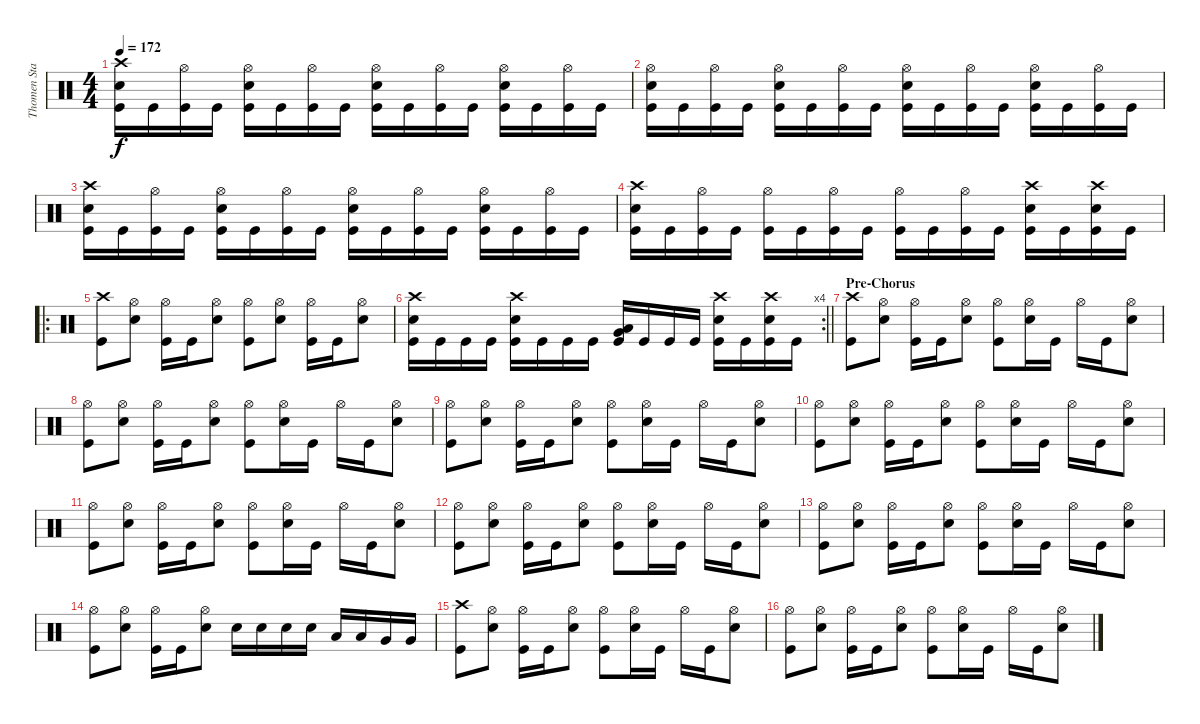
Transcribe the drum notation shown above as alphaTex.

\track ("Thomen Stauch" "Thomen Sta") {instrument percussion}
\staff {score}
\articulation defaults
\ts (4 4)
\tempo 172
\clef neutral
\ks c
("Crash high (hit)" "Snare (hit) 2" "Kick (hit)").16{dy f} "Kick (hit)".16 ("Hi-Hat (open)" "Kick (hit)").16 "Kick (hit)".16 ("Hi-Hat (open)" "Snare (hit) 2" "Kick (hit)").16 "Kick (hit)".16 ("Hi-Hat (open)" "Kick (hit)").16 "Kick (hit)".16 ("Hi-Hat (open)" "Snare (hit) 2" "Kick (hit)").16 "Kick (hit)".16 ("Hi-Hat (open)" "Kick (hit)").16 "Kick (hit)".16 ("Hi-Hat (open)" "Snare (hit) 2" "Kick (hit)").16 "Kick (hit)".16 ("Hi-Hat (open)" "Kick (hit)").16 "Kick (hit)".16 |
("Hi-Hat (open)" "Snare (hit) 2" "Kick (hit)").16 "Kick (hit)".16 ("Hi-Hat (open)" "Kick (hit)").16 "Kick (hit)".16 ("Hi-Hat (open)" "Snare (hit) 2" "Kick (hit)").16 "Kick (hit)".16 ("Hi-Hat (open)" "Kick (hit)").16 "Kick (hit)".16 ("Hi-Hat (open)" "Snare (hit) 2" "Kick (hit)").16 "Kick (hit)".16 ("Hi-Hat (open)" "Kick (hit)").16 "Kick (hit)".16 ("Hi-Hat (open)" "Snare (hit) 2" "Kick (hit)").16 "Kick (hit)".16 ("Hi-Hat (open)" "Kick (hit)").16 "Kick (hit)".16 |
("Crash high (hit)" "Snare (hit) 2" "Kick (hit)").16 "Kick (hit)".16 ("Hi-Hat (open)" "Kick (hit)").16 "Kick (hit)".16 ("Hi-Hat (open)" "Snare (hit) 2" "Kick (hit)").16 "Kick (hit)".16 ("Hi-Hat (open)" "Kick (hit)").16 "Kick (hit)".16 ("Hi-Hat (open)" "Snare (hit) 2" "Kick (hit)").16 "Kick (hit)".16 ("Hi-Hat (open)" "Kick (hit)").16 "Kick (hit)".16 ("Hi-Hat (open)" "Snare (hit) 2" "Kick (hit)").16 "Kick (hit)".16 ("Hi-Hat (open)" "Kick (hit)").16 "Kick (hit)".16 |
("Crash high (hit)" "Snare (hit) 2" "Kick (hit)").16 "Kick (hit)".16 ("Hi-Hat (open)" "Kick (hit)").16 "Kick (hit)".16 ("Hi-Hat (open)" "Kick (hit)").16 "Kick (hit)".16 ("Hi-Hat (open)" "Kick (hit)").16 "Kick (hit)".16 ("Hi-Hat (open)" "Kick (hit)").16 "Kick (hit)".16 ("Hi-Hat (open)" "Kick (hit)").16 "Kick (hit)".16 ("Crash high (hit)" "Snare (hit) 2" "Kick (hit)").16 "Kick (hit)".16 ("Crash high (hit)" "Snare (hit) 2" "Kick (hit)").16 "Kick (hit)".16 |
\ro
("Crash high (hit)" "Kick (hit)").8 ("Hi-Hat (open)" "Snare (hit) 2").8 ("Hi-Hat (open)" "Kick (hit)").16 "Kick (hit)".16 ("Hi-Hat (open)" "Snare (hit) 2").8 ("Hi-Hat (open)" "Kick (hit)").8 ("Hi-Hat (open)" "Snare (hit) 2").8 ("Hi-Hat (open)" "Kick (hit)").16 "Kick (hit)".16 ("Hi-Hat (open)" "Snare (hit) 2").8 |
\rc 4
\barLineRight lightlight
("Crash high (hit)" "Snare (hit) 2" "Kick (hit)").16 "Kick (hit)".16 "Kick (hit)".16 "Kick (hit)".16 ("Crash high (hit)" "Snare (hit) 2" "Kick (hit)").16 "Kick (hit)".16 "Kick (hit)".16 "Kick (hit)".16 ("Very Low Tom (hit)" "Low Floor Tom (hit)" "Kick (hit)").16 "Kick (hit)".16 "Kick (hit)".16 "Kick (hit)".16 ("Crash high (hit)" "Snare (hit) 2" "Kick (hit)").16 "Kick (hit)".16 ("Crash high (hit)" "Snare (hit) 2" "Kick (hit)").16 "Kick (hit)".16 |
\section ("" "Pre-Chorus")
("Crash high (hit)" "Kick (hit)").8 ("Hi-Hat (open)" "Snare (hit) 2").8 ("Hi-Hat (open)" "Kick (hit)").16 "Kick (hit)".16 ("Hi-Hat (open)" "Snare (hit) 2").8 ("Hi-Hat (open)" "Kick (hit)").8 ("Hi-Hat (open)" "Snare (hit) 2").16 "Kick (hit)".16 "Hi-Hat (open)".16 "Kick (hit)".16 ("Hi-Hat (open)" "Snare (hit) 2").8 |
("Hi-Hat (open)" "Kick (hit)").8 ("Hi-Hat (open)" "Snare (hit) 2").8 ("Hi-Hat (open)" "Kick (hit)").16 "Kick (hit)".16 ("Hi-Hat (open)" "Snare (hit) 2").8 ("Hi-Hat (open)" "Kick (hit)").8 ("Hi-Hat (open)" "Snare (hit) 2").16 "Kick (hit)".16 "Hi-Hat (open)".16 "Kick (hit)".16 ("Hi-Hat (open)" "Snare (hit) 2").8 |
("Hi-Hat (open)" "Kick (hit)").8 ("Hi-Hat (open)" "Snare (hit) 2").8 ("Hi-Hat (open)" "Kick (hit)").16 "Kick (hit)".16 ("Hi-Hat (open)" "Snare (hit) 2").8 ("Hi-Hat (open)" "Kick (hit)").8 ("Hi-Hat (open)" "Snare (hit) 2").16 "Kick (hit)".16 "Hi-Hat (open)".16 "Kick (hit)".16 ("Hi-Hat (open)" "Snare (hit) 2").8 |
("Hi-Hat (open)" "Kick (hit)").8 ("Hi-Hat (open)" "Snare (hit) 2").8 ("Hi-Hat (open)" "Kick (hit)").16 "Kick (hit)".16 ("Hi-Hat (open)" "Snare (hit) 2").8 ("Hi-Hat (open)" "Kick (hit)").8 ("Hi-Hat (open)" "Snare (hit) 2").16 "Kick (hit)".16 "Hi-Hat (open)".16 "Kick (hit)".16 ("Hi-Hat (open)" "Snare (hit) 2").8 |
("Hi-Hat (open)" "Kick (hit)").8 ("Hi-Hat (open)" "Snare (hit) 2").8 ("Hi-Hat (open)" "Kick (hit)").16 "Kick (hit)".16 ("Hi-Hat (open)" "Snare (hit) 2").8 ("Hi-Hat (open)" "Kick (hit)").8 ("Hi-Hat (open)" "Snare (hit) 2").16 "Kick (hit)".16 "Hi-Hat (open)".16 "Kick (hit)".16 ("Hi-Hat (open)" "Snare (hit) 2").8 |
("Hi-Hat (open)" "Kick (hit)").8 ("Hi-Hat (open)" "Snare (hit) 2").8 ("Hi-Hat (open)" "Kick (hit)").16 "Kick (hit)".16 ("Hi-Hat (open)" "Snare (hit) 2").8 ("Hi-Hat (open)" "Kick (hit)").8 ("Hi-Hat (open)" "Snare (hit) 2").16 "Kick (hit)".16 "Hi-Hat (open)".16 "Kick (hit)".16 ("Hi-Hat (open)" "Snare (hit) 2").8 |
("Hi-Hat (open)" "Kick (hit)").8 ("Hi-Hat (open)" "Snare (hit) 2").8 ("Hi-Hat (open)" "Kick (hit)").16 "Kick (hit)".16 ("Hi-Hat (open)" "Snare (hit) 2").8 ("Hi-Hat (open)" "Kick (hit)").8 ("Hi-Hat (open)" "Snare (hit) 2").16 "Kick (hit)".16 "Hi-Hat (open)".16 "Kick (hit)".16 ("Hi-Hat (open)" "Snare (hit) 2").8 |
("Hi-Hat (open)" "Kick (hit)").8 ("Hi-Hat (open)" "Snare (hit) 2").8 ("Hi-Hat (open)" "Kick (hit)").16 "Kick (hit)".16 ("Hi-Hat (open)" "Snare (hit) 2").8 "Snare (hit) 2".16 "Snare (hit) 2".16 "Snare (hit) 2".16 "Snare (hit) 2".16 "Low Tom (hit)".16 "Low Tom (hit)".16 "Very Low Tom (hit)".16 "Very Low Tom (hit)".16 |
("Crash high (hit)" "Kick (hit)").8 ("Hi-Hat (open)" "Snare (hit) 2").8 ("Hi-Hat (open)" "Kick (hit)").16 "Kick (hit)".16 ("Hi-Hat (open)" "Snare (hit) 2").8 ("Hi-Hat (open)" "Kick (hit)").8 ("Hi-Hat (open)" "Snare (hit) 2").16 "Kick (hit)".16 "Hi-Hat (open)".16 "Kick (hit)".16 ("Hi-Hat (open)" "Snare (hit) 2").8 |
("Hi-Hat (open)" "Kick (hit)").8 ("Hi-Hat (open)" "Snare (hit) 2").8 ("Hi-Hat (open)" "Kick (hit)").16 "Kick (hit)".16 ("Hi-Hat (open)" "Snare (hit) 2").8 ("Hi-Hat (open)" "Kick (hit)").8 ("Hi-Hat (open)" "Snare (hit) 2").16 "Kick (hit)".16 "Hi-Hat (open)".16 "Kick (hit)".16 ("Hi-Hat (open)" "Snare (hit) 2").8
